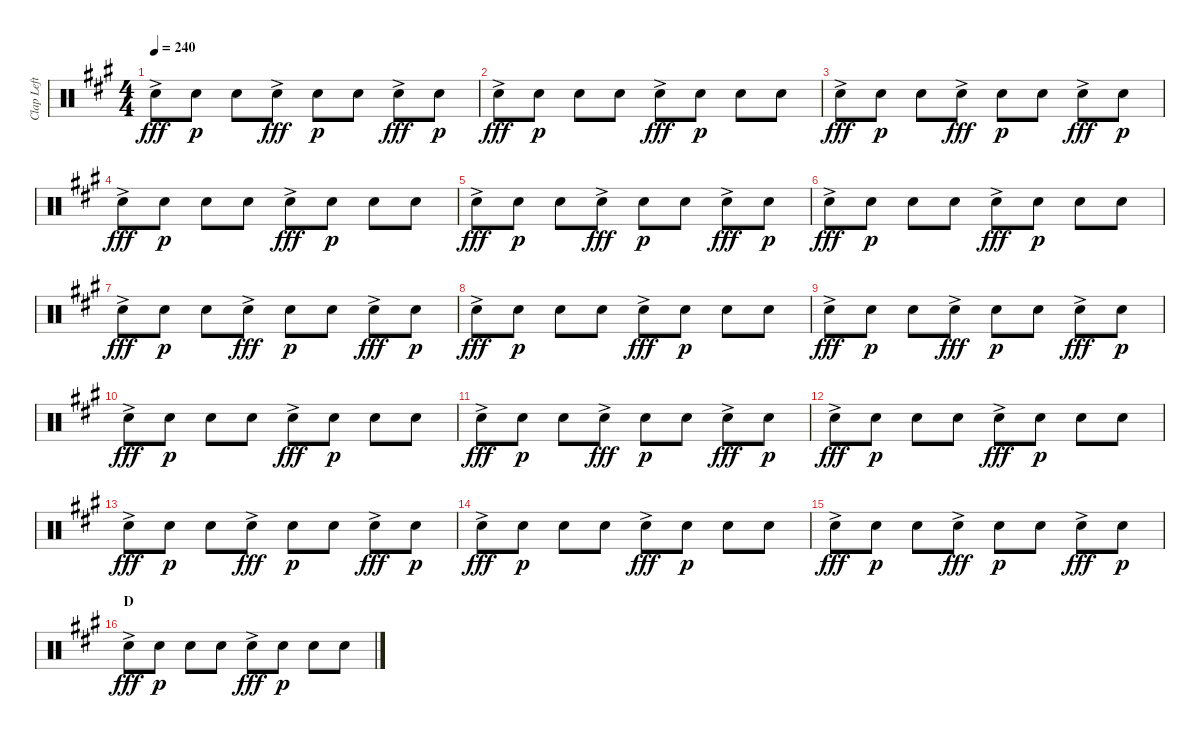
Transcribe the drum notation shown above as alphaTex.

\track ("Clap Left" "Clap Left") {instrument percussion}
\staff {score}
\articulation defaults
\ts (4 4)
\tempo 240
\clef neutral
\ks a "Hand Clap (hit)"{ac}.8{dy fff} "Hand Clap (hit)".8{dy p} "Hand Clap (hit)".8 "Hand Clap (hit)"{ac}.8{dy fff} "Hand Clap (hit)".8{dy p} "Hand Clap (hit)".8 "Hand Clap (hit)"{ac}.8{dy fff} "Hand Clap (hit)".8{dy p}
|
"Hand Clap (hit)"{ac}.8{dy fff} "Hand Clap (hit)".8{dy p} "Hand Clap (hit)".8 "Hand Clap (hit)".8 "Hand Clap (hit)"{ac}.8{dy fff} "Hand Clap (hit)".8{dy p} "Hand Clap (hit)".8 "Hand Clap (hit)".8 |
"Hand Clap (hit)"{ac}.8{dy fff} "Hand Clap (hit)".8{dy p} "Hand Clap (hit)".8 "Hand Clap (hit)"{ac}.8{dy fff} "Hand Clap (hit)".8{dy p} "Hand Clap (hit)".8 "Hand Clap (hit)"{ac}.8{dy fff} "Hand Clap (hit)".8{dy p} |
"Hand Clap (hit)"{ac}.8{dy fff} "Hand Clap (hit)".8{dy p} "Hand Clap (hit)".8 "Hand Clap (hit)".8 "Hand Clap (hit)"{ac}.8{dy fff} "Hand Clap (hit)".8{dy p} "Hand Clap (hit)".8 "Hand Clap (hit)".8 |
"Hand Clap (hit)"{ac}.8{dy fff} "Hand Clap (hit)".8{dy p} "Hand Clap (hit)".8 "Hand Clap (hit)"{ac}.8{dy fff} "Hand Clap (hit)".8{dy p} "Hand Clap (hit)".8 "Hand Clap (hit)"{ac}.8{dy fff} "Hand Clap (hit)".8{dy p} |
"Hand Clap (hit)"{ac}.8{dy fff} "Hand Clap (hit)".8{dy p} "Hand Clap (hit)".8 "Hand Clap (hit)".8 "Hand Clap (hit)"{ac}.8{dy fff} "Hand Clap (hit)".8{dy p} "Hand Clap (hit)".8 "Hand Clap (hit)".8 |
"Hand Clap (hit)"{ac}.8{dy fff} "Hand Clap (hit)".8{dy p} "Hand Clap (hit)".8 "Hand Clap (hit)"{ac}.8{dy fff} "Hand Clap (hit)".8{dy p} "Hand Clap (hit)".8 "Hand Clap (hit)"{ac}.8{dy fff} "Hand Clap (hit)".8{dy p} |
"Hand Clap (hit)"{ac}.8{dy fff} "Hand Clap (hit)".8{dy p} "Hand Clap (hit)".8 "Hand Clap (hit)".8 "Hand Clap (hit)"{ac}.8{dy fff} "Hand Clap (hit)".8{dy p} "Hand Clap (hit)".8 "Hand Clap (hit)".8 |
"Hand Clap (hit)"{ac}.8{dy fff} "Hand Clap (hit)".8{dy p} "Hand Clap (hit)".8 "Hand Clap (hit)"{ac}.8{dy fff} "Hand Clap (hit)".8{dy p} "Hand Clap (hit)".8 "Hand Clap (hit)"{ac}.8{dy fff} "Hand Clap (hit)".8{dy p} |
"Hand Clap (hit)"{ac}.8{dy fff} "Hand Clap (hit)".8{dy p} "Hand Clap (hit)".8 "Hand Clap (hit)".8 "Hand Clap (hit)"{ac}.8{dy fff} "Hand Clap (hit)".8{dy p} "Hand Clap (hit)".8 "Hand Clap (hit)".8 |
"Hand Clap (hit)"{ac}.8{dy fff} "Hand Clap (hit)".8{dy p} "Hand Clap (hit)".8 "Hand Clap (hit)"{ac}.8{dy fff} "Hand Clap (hit)".8{dy p} "Hand Clap (hit)".8 "Hand Clap (hit)"{ac}.8{dy fff} "Hand Clap (hit)".8{dy p} |
"Hand Clap (hit)"{ac}.8{dy fff} "Hand Clap (hit)".8{dy p} "Hand Clap (hit)".8 "Hand Clap (hit)".8 "Hand Clap (hit)"{ac}.8{dy fff} "Hand Clap (hit)".8{dy p} "Hand Clap (hit)".8 "Hand Clap (hit)".8 |
"Hand Clap (hit)"{ac}.8{dy fff} "Hand Clap (hit)".8{dy p} "Hand Clap (hit)".8 "Hand Clap (hit)"{ac}.8{dy fff} "Hand Clap (hit)".8{dy p} "Hand Clap (hit)".8 "Hand Clap (hit)"{ac}.8{dy fff} "Hand Clap (hit)".8{dy p} |
"Hand Clap (hit)"{ac}.8{dy fff} "Hand Clap (hit)".8{dy p} "Hand Clap (hit)".8 "Hand Clap (hit)".8 "Hand Clap (hit)"{ac}.8{dy fff} "Hand Clap (hit)".8{dy p} "Hand Clap (hit)".8 "Hand Clap (hit)".8 |
"Hand Clap (hit)"{ac}.8{dy fff} "Hand Clap (hit)".8{dy p} "Hand Clap (hit)".8 "Hand Clap (hit)"{ac}.8{dy fff} "Hand Clap (hit)".8{dy p} "Hand Clap (hit)".8 "Hand Clap (hit)"{ac}.8{dy fff} "Hand Clap (hit)".8{dy p} |
\section ("" "D")
"Hand Clap (hit)"{ac}.8{dy fff} "Hand Clap (hit)".8{dy p} "Hand Clap (hit)".8 "Hand Clap (hit)".8 "Hand Clap (hit)"{ac}.8{dy fff} "Hand Clap (hit)".8{dy p} "Hand Clap (hit)".8 "Hand Clap (hit)".8
